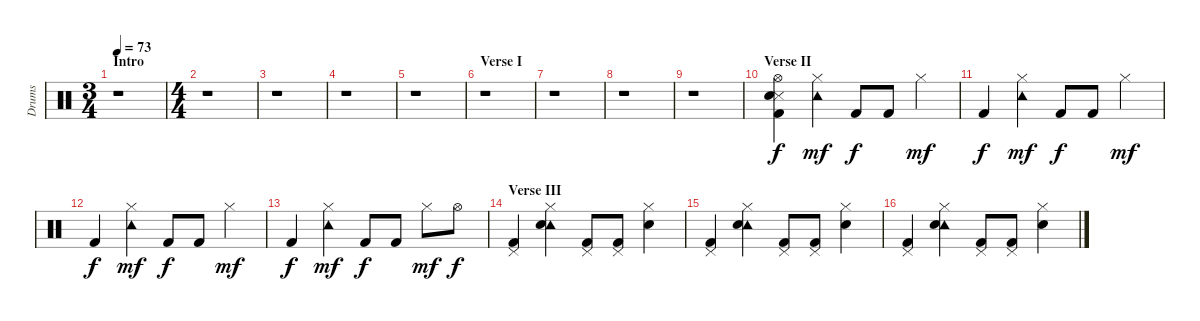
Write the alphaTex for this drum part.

\track ("Drums" "Drums") {instrument percussion}
\staff {score}
\articulation defaults
\ts (3 4)
\section ("" "Intro")
\tempo 73
\clef neutral
\ks c
r.1{dy f} |
\ts (4 4)
r.1 |
r.1 |
r.1 |
r.1 |
\section ("" "Verse I")
r.1 |
r.1 |
r.1 |
r.1 |
\section ("" "Verse II")
("Hi-Hat (open)" "Snare (side stick) 3" "Snare (hit) 2" "Kick (hit) 2").4 ("Hi-Hat (closed)" "Tambourine (hit)").4{dy mf} "Kick (hit) 2".8{dy f} "Kick (hit) 2".8 "Hi-Hat (closed)".4{dy mf} |
"Kick (hit) 2".4{dy f} ("Hi-Hat (closed)" "Tambourine (hit)").4{dy mf} "Kick (hit) 2".8{dy f} "Kick (hit) 2".8 "Hi-Hat (closed)".4{dy mf} |
"Kick (hit) 2".4{dy f} ("Hi-Hat (closed)" "Tambourine (hit)").4{dy mf} "Kick (hit) 2".8{dy f} "Kick (hit) 2".8 "Hi-Hat (closed)".4{dy mf} |
"Kick (hit) 2".4{dy f} ("Hi-Hat (closed)" "Tambourine (hit)").4{dy mf} "Kick (hit) 2".8{dy f} "Kick (hit) 2".8 "Hi-Hat (closed)".8{dy mf} "Hi-Hat (open)".8{dy f} |
\section ("" "Verse III")
("Pedal Hi-Hat (hit)" "Kick (hit) 2").4 ("Hi-Hat (closed)" "Tambourine (hit)" "Snare (hit) 2").4 ("Pedal Hi-Hat (hit)" "Kick (hit) 2").8 ("Pedal Hi-Hat (hit)" "Kick (hit) 2").8 ("Hi-Hat (closed)" "Snare (hit) 2").4 |
("Pedal Hi-Hat (hit)" "Kick (hit) 2").4 ("Hi-Hat (closed)" "Tambourine (hit)" "Snare (hit) 2").4 ("Pedal Hi-Hat (hit)" "Kick (hit) 2").8 ("Pedal Hi-Hat (hit)" "Kick (hit) 2").8 ("Hi-Hat (closed)" "Snare (hit) 2").4 |
("Pedal Hi-Hat (hit)" "Kick (hit) 2").4 ("Hi-Hat (closed)" "Tambourine (hit)" "Snare (hit) 2").4 ("Pedal Hi-Hat (hit)" "Kick (hit) 2").8 ("Pedal Hi-Hat (hit)" "Kick (hit) 2").8 ("Hi-Hat (closed)" "Snare (hit) 2").4
